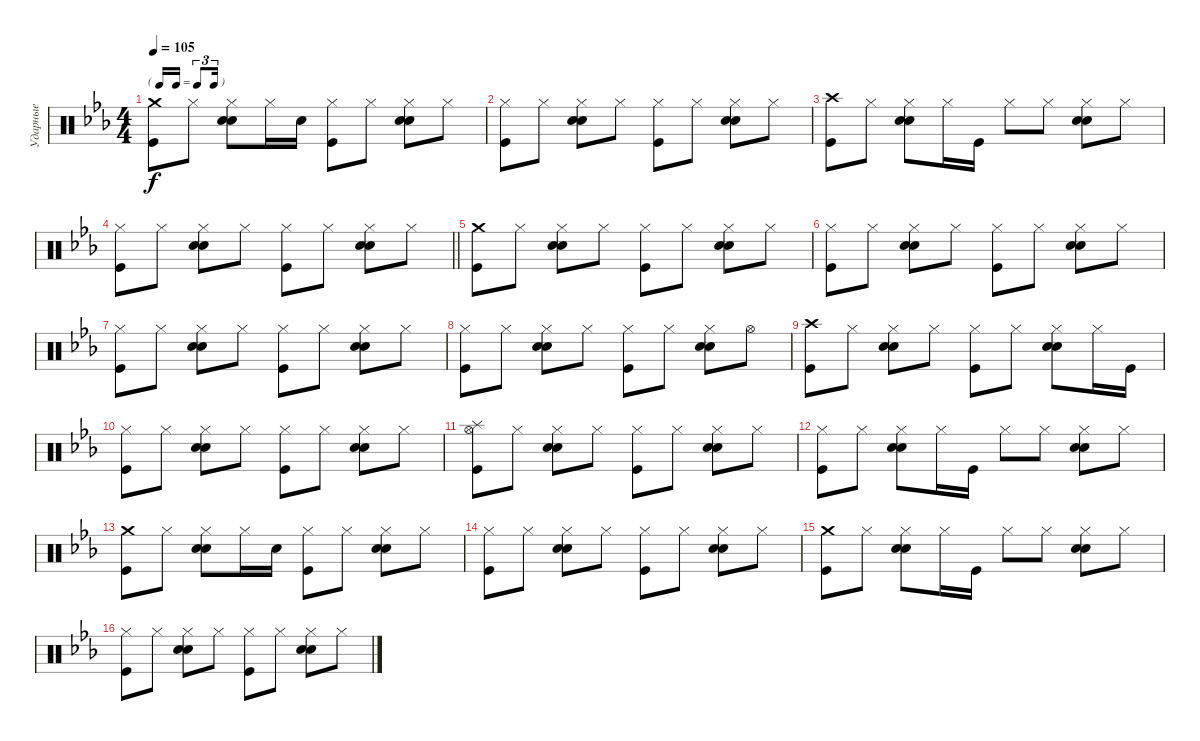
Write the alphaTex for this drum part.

\track ("Ударные" "Ударные") {instrument percussion}
\staff {score}
\articulation defaults
\ts (4 4)
\tf triplet16th
\tempo 105
\clef neutral
\ks cminor
("Kick (hit)" "Crash medium (hit)").8{dy f} "Hi-Hat (closed)".8 ("Snare (hit) 2" "Hi-Hat (closed)" "Hand Clap (hit)").8 "Hi-Hat (closed)".16 "Snare (hit) 2".16 ("Kick (hit)" "Hi-Hat (closed)").8 "Hi-Hat (closed)".8 ("Snare (hit) 2" "Hi-Hat (closed)" "Hand Clap (hit)").8 "Hi-Hat (closed)".8 |
("Kick (hit)" "Hi-Hat (closed)").8 "Hi-Hat (closed)".8 ("Snare (hit) 2" "Hi-Hat (closed)" "Hand Clap (hit)").8 "Hi-Hat (closed)".8 ("Kick (hit)" "Hi-Hat (closed)").8 "Hi-Hat (closed)".8 ("Snare (hit) 2" "Hi-Hat (closed)" "Hand Clap (hit)").8 "Hi-Hat (closed)".8 |
("Kick (hit)" "Crash high (hit)").8 "Hi-Hat (closed)".8 ("Snare (hit) 2" "Hi-Hat (closed)" "Hand Clap (hit)").8 "Hi-Hat (closed)".16 "Kick (hit)".16 "Hi-Hat (closed)".8 "Hi-Hat (closed)".8 ("Snare (hit) 2" "Hi-Hat (closed)" "Hand Clap (hit)").8 "Hi-Hat (closed)".8 |
\barLineRight lightlight
("Kick (hit)" "Hi-Hat (closed)").8 "Hi-Hat (closed)".8 ("Snare (hit) 2" "Hi-Hat (closed)" "Hand Clap (hit)").8 "Hi-Hat (closed)".8 ("Kick (hit)" "Hi-Hat (closed)").8 "Hi-Hat (closed)".8 ("Snare (hit) 2" "Hi-Hat (closed)" "Hand Clap (hit)").8 "Hi-Hat (closed)".8 |
("Kick (hit)" "Crash medium (hit)").8 "Hi-Hat (closed)".8 ("Snare (hit) 2" "Hi-Hat (closed)" "Hand Clap (hit)").8 "Hi-Hat (closed)".8 ("Kick (hit)" "Hi-Hat (closed)").8 "Hi-Hat (closed)".8 ("Snare (hit) 2" "Hi-Hat (closed)" "Hand Clap (hit)").8 "Hi-Hat (closed)".8 |
("Kick (hit)" "Hi-Hat (closed)").8 "Hi-Hat (closed)".8 ("Snare (hit) 2" "Hi-Hat (closed)" "Hand Clap (hit)").8 "Hi-Hat (closed)".8 ("Kick (hit)" "Hi-Hat (closed)").8 "Hi-Hat (closed)".8 ("Snare (hit) 2" "Hi-Hat (closed)" "Hand Clap (hit)").8 "Hi-Hat (closed)".8 |
("Kick (hit)" "Hi-Hat (closed)").8 "Hi-Hat (closed)".8 ("Snare (hit) 2" "Hi-Hat (closed)" "Hand Clap (hit)").8 "Hi-Hat (closed)".8 ("Kick (hit)" "Hi-Hat (closed)").8 "Hi-Hat (closed)".8 ("Snare (hit) 2" "Hi-Hat (closed)" "Hand Clap (hit)").8 "Hi-Hat (closed)".8 |
("Kick (hit)" "Hi-Hat (closed)").8 "Hi-Hat (closed)".8 ("Snare (hit) 2" "Hi-Hat (closed)" "Hand Clap (hit)").8 "Hi-Hat (closed)".8 ("Kick (hit)" "Hi-Hat (closed)").8 "Hi-Hat (closed)".8 ("Snare (hit) 2" "Hi-Hat (closed)" "Hand Clap (hit)").8 "Hi-Hat (open)".8 |
("Kick (hit)" "Crash high (hit)").8 "Hi-Hat (closed)".8 ("Snare (hit) 2" "Hi-Hat (closed)" "Hand Clap (hit)").8 "Hi-Hat (closed)".8 ("Kick (hit)" "Hi-Hat (closed)").8 "Hi-Hat (closed)".8 ("Snare (hit) 2" "Hi-Hat (closed)" "Hand Clap (hit)").8 "Hi-Hat (closed)".16 "Kick (hit)".16 |
("Kick (hit)" "Hi-Hat (closed)").8 "Hi-Hat (closed)".8 ("Snare (hit) 2" "Hi-Hat (closed)" "Hand Clap (hit)").8 "Hi-Hat (closed)".8 ("Kick (hit)" "Hi-Hat (closed)").8 "Hi-Hat (closed)".8 ("Snare (hit) 2" "Hi-Hat (closed)" "Hand Clap (hit)").8 "Hi-Hat (closed)".8 |
("Kick (hit)" "Splash (hit)" "Hi-Hat (open)").8 "Hi-Hat (closed)".8 ("Snare (hit) 2" "Hi-Hat (closed)" "Hand Clap (hit)").8 "Hi-Hat (closed)".8 ("Hi-Hat (closed)" "Kick (hit)").8 "Hi-Hat (closed)".8 ("Snare (hit) 2" "Hi-Hat (closed)" "Hand Clap (hit)").8 "Hi-Hat (closed)".8 |
("Kick (hit)" "Hi-Hat (closed)").8 "Hi-Hat (closed)".8 ("Snare (hit) 2" "Hi-Hat (closed)" "Hand Clap (hit)").8 "Hi-Hat (closed)".16 "Kick (hit)".16 "Hi-Hat (closed)".8 "Hi-Hat (closed)".8 ("Snare (hit) 2" "Hi-Hat (closed)" "Hand Clap (hit)").8 "Hi-Hat (closed)".8 |
("Kick (hit)" "Crash medium (hit)").8 "Hi-Hat (closed)".8 ("Snare (hit) 2" "Hi-Hat (closed)" "Hand Clap (hit)").8 "Hi-Hat (closed)".16 "Snare (hit) 2".16 ("Hi-Hat (closed)" "Kick (hit)").8 "Hi-Hat (closed)".8 ("Snare (hit) 2" "Hi-Hat (closed)" "Hand Clap (hit)").8 "Hi-Hat (closed)".8 |
("Kick (hit)" "Hi-Hat (closed)").8 "Hi-Hat (closed)".8 ("Snare (hit) 2" "Hi-Hat (closed)" "Hand Clap (hit)").8 "Hi-Hat (closed)".8 ("Kick (hit)" "Hi-Hat (closed)").8 "Hi-Hat (closed)".8 ("Snare (hit) 2" "Hi-Hat (closed)" "Hand Clap (hit)").8 "Hi-Hat (closed)".8 |
("Kick (hit)" "Crash medium (hit)").8 "Hi-Hat (closed)".8 ("Snare (hit) 2" "Hi-Hat (closed)" "Hand Clap (hit)").8 "Hi-Hat (closed)".16 "Kick (hit)".16 "Hi-Hat (closed)".8 "Hi-Hat (closed)".8 ("Snare (hit) 2" "Hi-Hat (closed)" "Hand Clap (hit)").8 "Hi-Hat (closed)".8 |
("Kick (hit)" "Hi-Hat (closed)").8 "Hi-Hat (closed)".8 ("Snare (hit) 2" "Hi-Hat (closed)" "Hand Clap (hit)").8 "Hi-Hat (closed)".8 ("Kick (hit)" "Hi-Hat (closed)").8 "Hi-Hat (closed)".8 ("Snare (hit) 2" "Hi-Hat (closed)" "Hand Clap (hit)").8 "Hi-Hat (closed)".8
